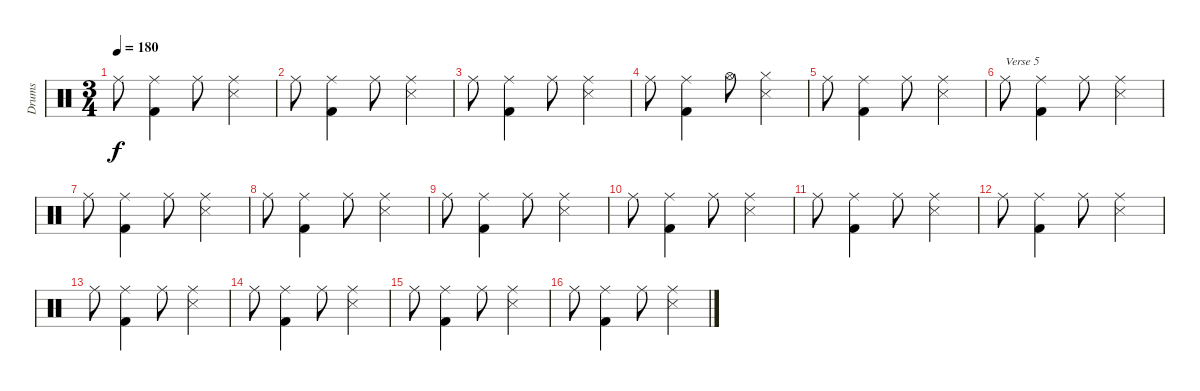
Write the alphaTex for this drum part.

\track ("Drums" "Drums") {instrument percussion}
\staff {score}
\articulation defaults
\ts (3 4)
\tempo 180
\clef neutral
\ks c "Ride (middle)".8{dy f}
("Ride (middle)" "Kick (hit) 2").4 "Ride (middle)".8 ("Ride (middle)" "Snare (side stick) 3").4 |
"Ride (middle)".8 ("Ride (middle)" "Kick (hit) 2").4 "Ride (middle)".8 ("Ride (middle)" "Snare (side stick) 3").4 |
"Ride (middle)".8 ("Ride (middle)" "Kick (hit) 2").4 "Ride (middle)".8 ("Ride (middle)" "Snare (side stick) 3").4 |
"Ride (middle)".8 ("Ride (middle)" "Kick (hit) 2").4 "Hi-Hat (open)".8 ("Hi-Hat (closed)" "Snare (side stick) 3").4 |
"Ride (middle)".8 ("Ride (middle)" "Kick (hit) 2").4 "Ride (middle)".8 ("Ride (middle)" "Snare (side stick) 3").4 |
"Ride (middle)".8{txt "Verse 5"} ("Ride (middle)" "Kick (hit) 2").4 "Ride (middle)".8 ("Ride (middle)" "Snare (side stick) 3").4 |
"Ride (middle)".8 ("Ride (middle)" "Kick (hit) 2").4 "Ride (middle)".8 ("Ride (middle)" "Snare (side stick) 3").4 |
"Ride (middle)".8 ("Ride (middle)" "Kick (hit) 2").4 "Ride (middle)".8 ("Ride (middle)" "Snare (side stick) 3").4 |
"Ride (middle)".8 ("Ride (middle)" "Kick (hit) 2").4 "Ride (middle)".8 ("Ride (middle)" "Snare (side stick) 3").4 |
"Ride (middle)".8 ("Ride (middle)" "Kick (hit) 2").4 "Ride (middle)".8 ("Ride (middle)" "Snare (side stick) 3").4 |
"Ride (middle)".8 ("Ride (middle)" "Kick (hit) 2").4 "Ride (middle)".8 ("Ride (middle)" "Snare (side stick) 3").4 |
"Ride (middle)".8 ("Ride (middle)" "Kick (hit) 2").4 "Ride (middle)".8 ("Ride (middle)" "Snare (side stick) 3").4 |
"Ride (middle)".8 ("Ride (middle)" "Kick (hit) 2").4 "Ride (middle)".8 ("Ride (middle)" "Snare (side stick) 3").4 |
"Ride (middle)".8 ("Ride (middle)" "Kick (hit) 2").4 "Ride (middle)".8 ("Ride (middle)" "Snare (side stick) 3").4 |
"Ride (middle)".8 ("Ride (middle)" "Kick (hit) 2").4 "Ride (middle)".8 ("Ride (middle)" "Snare (side stick) 3").4 |
"Ride (middle)".8 ("Ride (middle)" "Kick (hit) 2").4 "Ride (middle)".8 ("Ride (middle)" "Snare (side stick) 3").4
